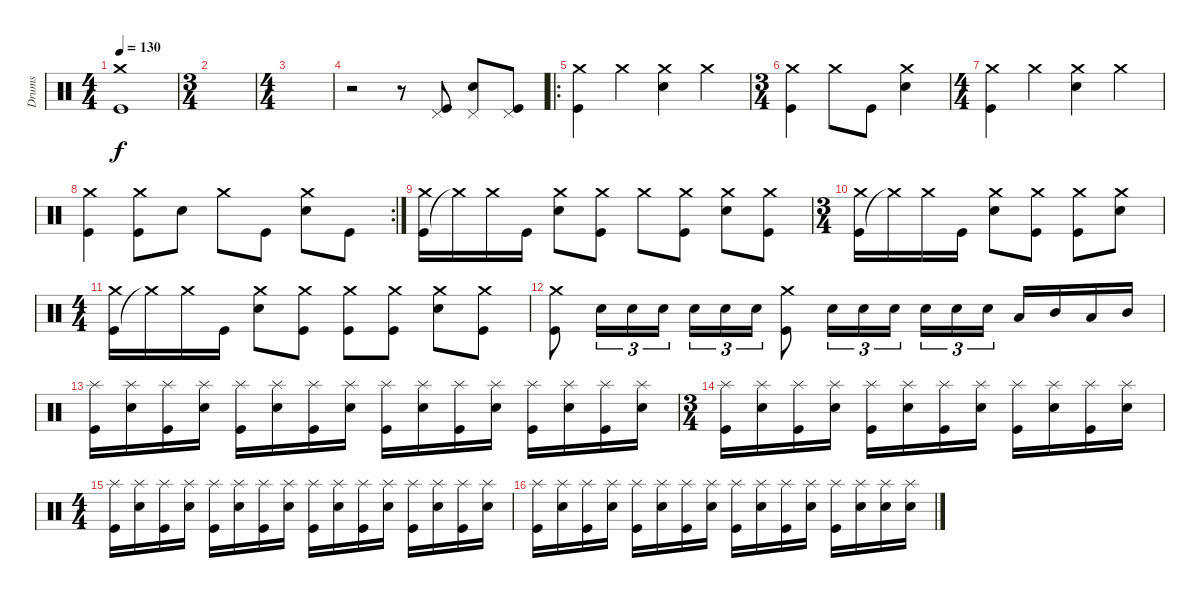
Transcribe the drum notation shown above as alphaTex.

\track ("Drums" "Drums") {instrument percussion}
\staff {score}
\articulation defaults
\ts (4 4)
\tempo 130
\clef neutral
\ks c
("Kick (hit)" "Crash medium (hit)").1{dy f} |
\ts (3 4)
|
\ts (4 4)
|
r.2 r.8 ("Kick (hit)" "Pedal Hi-Hat (hit)").8 ("Electric Snare (hit)" "Pedal Hi-Hat (hit)").8 ("Kick (hit)" "Pedal Hi-Hat (hit)").8 |
\ro
("Kick (hit)" "Crash medium (hit)").4 "Crash medium (hit)".4 ("Electric Snare (hit)" "Crash medium (hit)").4 "Crash medium (hit)".4 |
\ts (3 4)
("Kick (hit)" "Crash medium (hit)").4 "Crash medium (hit)".8 "Kick (hit)".8 ("Electric Snare (hit)" "Crash medium (hit)").4 |
\ts (4 4)
("Kick (hit)" "Crash medium (hit)").4 "Crash medium (hit)".4 ("Electric Snare (hit)" "Crash medium (hit)").4 "Crash medium (hit)".4 |
\rc 2
("Kick (hit)" "Crash medium (hit)").4 ("Kick (hit)" "Crash medium (hit)").8 "Electric Snare (hit)".8 "Crash medium (hit)".8 "Kick (hit)".8 ("Electric Snare (hit)" "Crash medium (hit)").8 "Kick (hit)".8 |
("Kick (hit)" "Crash medium (hit)").16 "Crash medium (hit)"{t}.16 "Crash medium (hit)".16 "Kick (hit)".16 ("Electric Snare (hit)" "Crash medium (hit)").8 ("Kick (hit)" "Crash medium (hit)").8 "Crash medium (hit)".8 ("Kick (hit)" "Crash medium (hit)").8 ("Electric Snare (hit)" "Crash medium (hit)").8 ("Kick (hit)" "Crash medium (hit)").8 |
\ts (3 4)
("Kick (hit)" "Crash medium (hit)").16 "Crash medium (hit)"{t}.16 "Crash medium (hit)".16 "Kick (hit)".16 ("Electric Snare (hit)" "Crash medium (hit)").8 ("Kick (hit)" "Crash medium (hit)").8 ("Kick (hit)" "Crash medium (hit)").8 ("Electric Snare (hit)" "Crash medium (hit)").8 |
\ts (4 4)
("Kick (hit)" "Crash medium (hit)").16 "Crash medium (hit)"{t}.16 "Crash medium (hit)".16 "Kick (hit)".16 ("Electric Snare (hit)" "Crash medium (hit)").8 ("Kick (hit)" "Crash medium (hit)").8 ("Kick (hit)" "Crash medium (hit)").8 ("Kick (hit)" "Crash medium (hit)").8 ("Electric Snare (hit)" "Crash medium (hit)").8 ("Kick (hit)" "Crash medium (hit)").8 |
("Kick (hit)" "Crash medium (hit)").8 "Electric Snare (hit)".16{tu (3 2)} "Electric Snare (hit)".16{tu (3 2)} "Electric Snare (hit)".16{tu (3 2)} "Electric Snare (hit)".16{tu (3 2)} "Electric Snare (hit)".16{tu (3 2)} "Electric Snare (hit)".16{tu (3 2)} ("Kick (hit)" "Crash medium (hit)").8 "Electric Snare (hit)".16{tu (3 2)} "Electric Snare (hit)".16{tu (3 2)} "Electric Snare (hit)".16{tu (3 2)} "Electric Snare (hit)".16{tu (3 2)} "Electric Snare (hit)".16{tu (3 2)} "Electric Snare (hit)".16{tu (3 2)} "Low Tom (hit)".16 "Mid Tom (hit)".16 "Low Tom (hit)".16 "Mid Tom (hit)".16 |
("Kick (hit)" "Splash (hit)").16 ("Electric Snare (hit)" "Splash (hit)").16 ("Kick (hit)" "Splash (hit)").16 ("Electric Snare (hit)" "Splash (hit)").16 ("Kick (hit)" "Splash (hit)").16 ("Electric Snare (hit)" "Splash (hit)").16 ("Kick (hit)" "Splash (hit)").16 ("Electric Snare (hit)" "Splash (hit)").16 ("Kick (hit)" "Splash (hit)").16 ("Electric Snare (hit)" "Splash (hit)").16 ("Kick (hit)" "Splash (hit)").16 ("Electric Snare (hit)" "Splash (hit)").16 ("Kick (hit)" "Splash (hit)").16 ("Electric Snare (hit)" "Splash (hit)").16 ("Kick (hit)" "Splash (hit)").16 ("Electric Snare (hit)" "Splash (hit)").16 |
\ts (3 4)
("Kick (hit)" "Splash (hit)").16 ("Electric Snare (hit)" "Splash (hit)").16 ("Kick (hit)" "Splash (hit)").16 ("Electric Snare (hit)" "Splash (hit)").16 ("Kick (hit)" "Splash (hit)").16 ("Electric Snare (hit)" "Splash (hit)").16 ("Kick (hit)" "Splash (hit)").16 ("Electric Snare (hit)" "Splash (hit)").16 ("Kick (hit)" "Splash (hit)").16 ("Electric Snare (hit)" "Splash (hit)").16 ("Kick (hit)" "Splash (hit)").16 ("Electric Snare (hit)" "Splash (hit)").16 |
\ts (4 4)
("Kick (hit)" "Splash (hit)").16 ("Electric Snare (hit)" "Splash (hit)").16 ("Kick (hit)" "Splash (hit)").16 ("Electric Snare (hit)" "Splash (hit)").16 ("Kick (hit)" "Splash (hit)").16 ("Electric Snare (hit)" "Splash (hit)").16 ("Kick (hit)" "Splash (hit)").16 ("Electric Snare (hit)" "Splash (hit)").16 ("Kick (hit)" "Splash (hit)").16 ("Electric Snare (hit)" "Splash (hit)").16 ("Kick (hit)" "Splash (hit)").16 ("Electric Snare (hit)" "Splash (hit)").16 ("Kick (hit)" "Splash (hit)").16 ("Electric Snare (hit)" "Splash (hit)").16 ("Kick (hit)" "Splash (hit)").16 ("Electric Snare (hit)" "Splash (hit)").16 |
("Kick (hit)" "Splash (hit)").16 ("Electric Snare (hit)" "Splash (hit)").16 ("Kick (hit)" "Splash (hit)").16 ("Electric Snare (hit)" "Splash (hit)").16 ("Kick (hit)" "Splash (hit)").16 ("Electric Snare (hit)" "Splash (hit)").16 ("Kick (hit)" "Splash (hit)").16 ("Electric Snare (hit)" "Splash (hit)").16 ("Kick (hit)" "Splash (hit)").16 ("Electric Snare (hit)" "Splash (hit)").16 ("Kick (hit)" "Splash (hit)").16 ("Electric Snare (hit)" "Splash (hit)").16 ("Kick (hit)" "Splash (hit)").16 ("Electric Snare (hit)" "Splash (hit)").16 ("Electric Snare (hit)" "Splash (hit)").16 ("Electric Snare (hit)" "Splash (hit)").16
